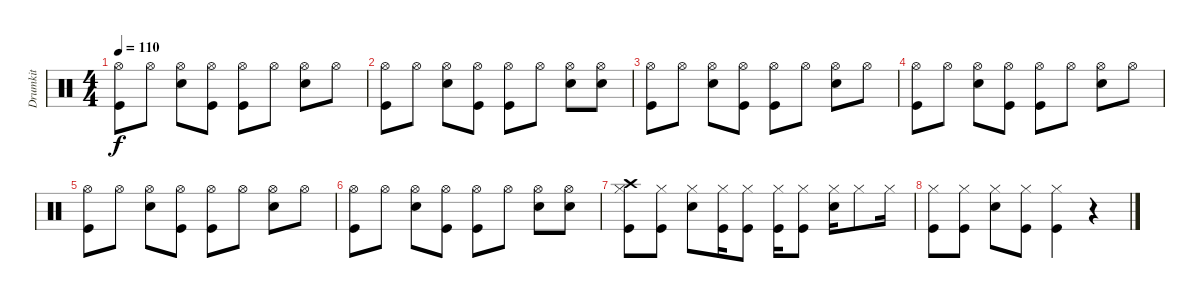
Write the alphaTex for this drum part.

\track ("Drumkit" "Drumkit") {instrument percussion}
\staff {score}
\articulation defaults
\ts (4 4)
\tempo 110
\clef neutral
\ks c
("Hi-Hat (open)" "Kick (hit)").8{dy f} "Hi-Hat (open)".8 ("Hi-Hat (open)" "Snare (hit) 2").8 ("Hi-Hat (open)" "Kick (hit)").8 ("Hi-Hat (open)" "Kick (hit)").8 "Hi-Hat (open)".8 ("Hi-Hat (open)" "Snare (hit) 2").8 "Hi-Hat (open)".8 |
("Hi-Hat (open)" "Kick (hit)").8 "Hi-Hat (open)".8 ("Hi-Hat (open)" "Snare (hit) 2").8 ("Hi-Hat (open)" "Kick (hit)").8 ("Hi-Hat (open)" "Kick (hit)").8 "Hi-Hat (open)".8 ("Hi-Hat (open)" "Snare (hit) 2").8 ("Hi-Hat (open)" "Snare (hit) 2").8 |
("Hi-Hat (open)" "Kick (hit)").8 "Hi-Hat (open)".8 ("Hi-Hat (open)" "Snare (hit) 2").8 ("Hi-Hat (open)" "Kick (hit)").8 ("Hi-Hat (open)" "Kick (hit)").8 "Hi-Hat (open)".8 ("Hi-Hat (open)" "Snare (hit) 2").8 "Hi-Hat (open)".8 |
("Hi-Hat (open)" "Kick (hit)").8 "Hi-Hat (open)".8 ("Hi-Hat (open)" "Snare (hit) 2").8 ("Hi-Hat (open)" "Kick (hit)").8 ("Hi-Hat (open)" "Kick (hit)").8 "Hi-Hat (open)".8 ("Hi-Hat (open)" "Snare (hit) 2").8 "Hi-Hat (open)".8 |
("Hi-Hat (open)" "Kick (hit)").8 "Hi-Hat (open)".8 ("Hi-Hat (open)" "Snare (hit) 2").8 ("Hi-Hat (open)" "Kick (hit)").8 ("Hi-Hat (open)" "Kick (hit)").8 "Hi-Hat (open)".8 ("Hi-Hat (open)" "Snare (hit) 2").8 "Hi-Hat (open)".8 |
("Hi-Hat (open)" "Kick (hit)").8 "Hi-Hat (open)".8 ("Hi-Hat (open)" "Snare (hit) 2").8 ("Hi-Hat (open)" "Kick (hit)").8 ("Hi-Hat (open)" "Kick (hit)").8 "Hi-Hat (open)".8 ("Hi-Hat (open)" "Snare (hit) 2").8 ("Hi-Hat (open)" "Snare (hit) 2").8 |
("Crash high (hit)" "Hi-Hat (closed)" "Kick (hit)").8 ("Hi-Hat (closed)" "Kick (hit)").8 ("Hi-Hat (closed)" "Snare (hit) 2").8 ("Hi-Hat (closed)" "Kick (hit)").16 ("Hi-Hat (closed)" "Kick (hit)").8 ("Hi-Hat (closed)" "Kick (hit)").16 ("Hi-Hat (closed)" "Kick (hit)").8 ("Hi-Hat (closed)" "Snare (hit) 2").16 "Hi-Hat (closed)".8 "Hi-Hat (closed)".16 |
("Hi-Hat (closed)" "Kick (hit)").8 ("Hi-Hat (closed)" "Kick (hit)").8 ("Hi-Hat (closed)" "Snare (hit) 2").8 ("Hi-Hat (closed)" "Kick (hit)").8 ("Hi-Hat (closed)" "Kick (hit)").4 r.4
